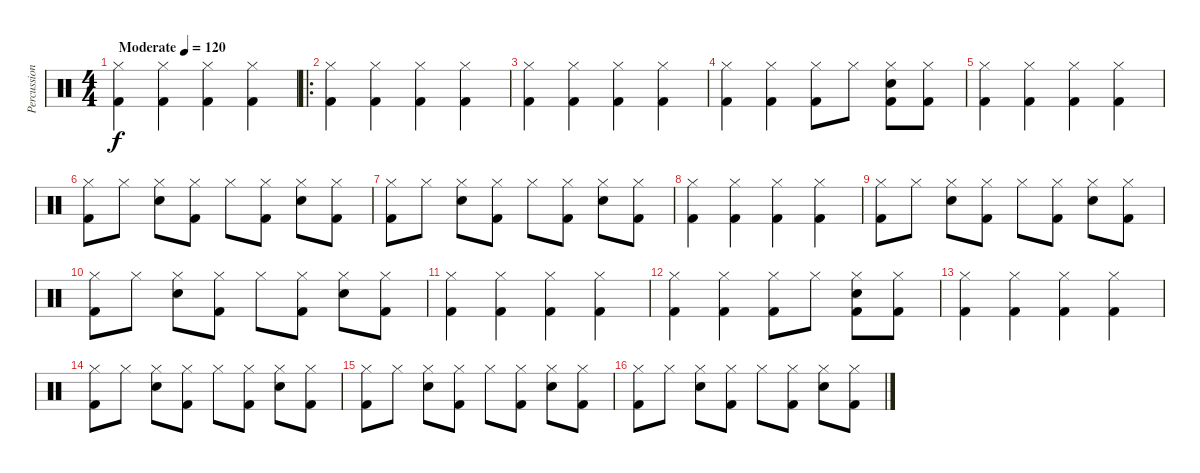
\track ("Percussion" "Percussion") {instrument percussion}
\staff {score}
\articulation defaults
\ts (4 4)
\tempo (120 "Moderate")
\clef neutral
\ks c
("Kick (hit) 2" "Hi-Hat (closed)").4{dy f} ("Kick (hit) 2" "Hi-Hat (closed)").4 ("Kick (hit) 2" "Hi-Hat (closed)").4 ("Kick (hit) 2" "Hi-Hat (closed)").4 |
\ro
("Kick (hit) 2" "Hi-Hat (closed)").4 ("Kick (hit) 2" "Hi-Hat (closed)").4 ("Kick (hit) 2" "Hi-Hat (closed)").4 ("Kick (hit) 2" "Hi-Hat (closed)").4 |
("Kick (hit) 2" "Hi-Hat (closed)").4 ("Kick (hit) 2" "Hi-Hat (closed)").4 ("Kick (hit) 2" "Hi-Hat (closed)").4 ("Kick (hit) 2" "Hi-Hat (closed)").4 |
("Kick (hit) 2" "Hi-Hat (closed)").4 ("Kick (hit) 2" "Hi-Hat (closed)").4 ("Kick (hit) 2" "Hi-Hat (closed)").8 "Hi-Hat (closed)".8 ("Kick (hit) 2" "Snare (hit) 2" "Hi-Hat (closed)").8 ("Kick (hit) 2" "Hi-Hat (closed)").8 |
("Kick (hit) 2" "Hi-Hat (closed)").4 ("Kick (hit) 2" "Hi-Hat (closed)").4 ("Kick (hit) 2" "Hi-Hat (closed)").4 ("Kick (hit) 2" "Hi-Hat (closed)").4 |
("Kick (hit) 2" "Hi-Hat (closed)").8 "Hi-Hat (closed)".8 ("Snare (hit) 2" "Hi-Hat (closed)").8 ("Kick (hit) 2" "Hi-Hat (closed)").8 "Hi-Hat (closed)".8 ("Kick (hit) 2" "Hi-Hat (closed)").8 ("Snare (hit) 2" "Hi-Hat (closed)").8 ("Kick (hit) 2" "Hi-Hat (closed)").8 |
("Kick (hit) 2" "Hi-Hat (closed)").8 "Hi-Hat (closed)".8 ("Snare (hit) 2" "Hi-Hat (closed)").8 ("Kick (hit) 2" "Hi-Hat (closed)").8 "Hi-Hat (closed)".8 ("Kick (hit) 2" "Hi-Hat (closed)").8 ("Snare (hit) 2" "Hi-Hat (closed)").8 ("Kick (hit) 2" "Hi-Hat (closed)").8 |
("Kick (hit) 2" "Hi-Hat (closed)").4 ("Kick (hit) 2" "Hi-Hat (closed)").4 ("Kick (hit) 2" "Hi-Hat (closed)").4 ("Kick (hit) 2" "Hi-Hat (closed)").4 |
("Kick (hit) 2" "Hi-Hat (closed)").8 "Hi-Hat (closed)".8 ("Snare (hit) 2" "Hi-Hat (closed)").8 ("Kick (hit) 2" "Hi-Hat (closed)").8 "Hi-Hat (closed)".8 ("Kick (hit) 2" "Hi-Hat (closed)").8 ("Snare (hit) 2" "Hi-Hat (closed)").8 ("Kick (hit) 2" "Hi-Hat (closed)").8 |
("Kick (hit) 2" "Hi-Hat (closed)").8 "Hi-Hat (closed)".8 ("Snare (hit) 2" "Hi-Hat (closed)").8 ("Kick (hit) 2" "Hi-Hat (closed)").8 "Hi-Hat (closed)".8 ("Kick (hit) 2" "Hi-Hat (closed)").8 ("Snare (hit) 2" "Hi-Hat (closed)").8 ("Kick (hit) 2" "Hi-Hat (closed)").8 |
("Kick (hit) 2" "Hi-Hat (closed)").4 ("Kick (hit) 2" "Hi-Hat (closed)").4 ("Kick (hit) 2" "Hi-Hat (closed)").4 ("Kick (hit) 2" "Hi-Hat (closed)").4 |
("Kick (hit) 2" "Hi-Hat (closed)").4 ("Kick (hit) 2" "Hi-Hat (closed)").4 ("Kick (hit) 2" "Hi-Hat (closed)").8 "Hi-Hat (closed)".8 ("Kick (hit) 2" "Snare (hit) 2" "Hi-Hat (closed)").8 ("Kick (hit) 2" "Hi-Hat (closed)").8 |
("Kick (hit) 2" "Hi-Hat (closed)").4 ("Kick (hit) 2" "Hi-Hat (closed)").4 ("Kick (hit) 2" "Hi-Hat (closed)").4 ("Kick (hit) 2" "Hi-Hat (closed)").4 |
("Kick (hit) 2" "Hi-Hat (closed)").8 "Hi-Hat (closed)".8 ("Snare (hit) 2" "Hi-Hat (closed)").8 ("Kick (hit) 2" "Hi-Hat (closed)").8 "Hi-Hat (closed)".8 ("Kick (hit) 2" "Hi-Hat (closed)").8 ("Snare (hit) 2" "Hi-Hat (closed)").8 ("Kick (hit) 2" "Hi-Hat (closed)").8 |
("Kick (hit) 2" "Hi-Hat (closed)").8 "Hi-Hat (closed)".8 ("Snare (hit) 2" "Hi-Hat (closed)").8 ("Kick (hit) 2" "Hi-Hat (closed)").8 "Hi-Hat (closed)".8 ("Kick (hit) 2" "Hi-Hat (closed)").8 ("Snare (hit) 2" "Hi-Hat (closed)").8 ("Kick (hit) 2" "Hi-Hat (closed)").8 |
("Kick (hit) 2" "Hi-Hat (closed)").8 "Hi-Hat (closed)".8 ("Snare (hit) 2" "Hi-Hat (closed)").8 ("Kick (hit) 2" "Hi-Hat (closed)").8 "Hi-Hat (closed)".8 ("Kick (hit) 2" "Hi-Hat (closed)").8 ("Snare (hit) 2" "Hi-Hat (closed)").8 ("Kick (hit) 2" "Hi-Hat (closed)").8
